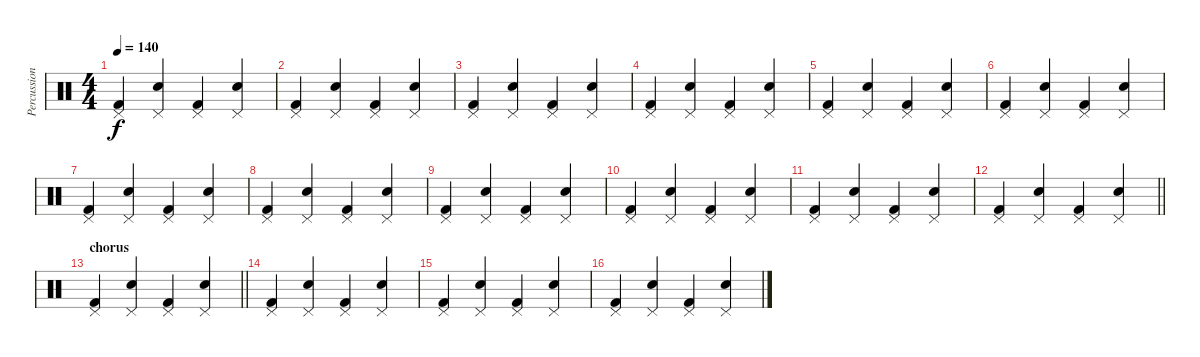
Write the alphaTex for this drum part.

\track ("Percussion" "Percussion") {instrument percussion}
\staff {score}
\articulation defaults
\ts (4 4)
\tempo 140
\clef neutral
\ks c
("Kick (hit) 2" "Pedal Hi-Hat (hit)").4{dy f} ("Snare (hit) 2" "Pedal Hi-Hat (hit)").4 ("Kick (hit) 2" "Pedal Hi-Hat (hit)").4 ("Snare (hit) 2" "Pedal Hi-Hat (hit)").4 |
("Kick (hit) 2" "Pedal Hi-Hat (hit)").4 ("Snare (hit) 2" "Pedal Hi-Hat (hit)").4 ("Kick (hit) 2" "Pedal Hi-Hat (hit)").4 ("Snare (hit) 2" "Pedal Hi-Hat (hit)").4 |
("Kick (hit) 2" "Pedal Hi-Hat (hit)").4 ("Snare (hit) 2" "Pedal Hi-Hat (hit)").4 ("Kick (hit) 2" "Pedal Hi-Hat (hit)").4 ("Snare (hit) 2" "Pedal Hi-Hat (hit)").4 |
("Kick (hit) 2" "Pedal Hi-Hat (hit)").4 ("Snare (hit) 2" "Pedal Hi-Hat (hit)").4 ("Kick (hit) 2" "Pedal Hi-Hat (hit)").4 ("Snare (hit) 2" "Pedal Hi-Hat (hit)").4 |
("Kick (hit) 2" "Pedal Hi-Hat (hit)").4 ("Snare (hit) 2" "Pedal Hi-Hat (hit)").4 ("Kick (hit) 2" "Pedal Hi-Hat (hit)").4 ("Snare (hit) 2" "Pedal Hi-Hat (hit)").4 |
("Kick (hit) 2" "Pedal Hi-Hat (hit)").4 ("Snare (hit) 2" "Pedal Hi-Hat (hit)").4 ("Kick (hit) 2" "Pedal Hi-Hat (hit)").4 ("Snare (hit) 2" "Pedal Hi-Hat (hit)").4 |
("Kick (hit) 2" "Pedal Hi-Hat (hit)").4 ("Snare (hit) 2" "Pedal Hi-Hat (hit)").4 ("Kick (hit) 2" "Pedal Hi-Hat (hit)").4 ("Snare (hit) 2" "Pedal Hi-Hat (hit)").4 |
("Kick (hit) 2" "Pedal Hi-Hat (hit)").4 ("Snare (hit) 2" "Pedal Hi-Hat (hit)").4 ("Kick (hit) 2" "Pedal Hi-Hat (hit)").4 ("Snare (hit) 2" "Pedal Hi-Hat (hit)").4 |
("Kick (hit) 2" "Pedal Hi-Hat (hit)").4 ("Snare (hit) 2" "Pedal Hi-Hat (hit)").4 ("Kick (hit) 2" "Pedal Hi-Hat (hit)").4 ("Snare (hit) 2" "Pedal Hi-Hat (hit)").4 |
("Kick (hit) 2" "Pedal Hi-Hat (hit)").4 ("Snare (hit) 2" "Pedal Hi-Hat (hit)").4 ("Kick (hit) 2" "Pedal Hi-Hat (hit)").4 ("Snare (hit) 2" "Pedal Hi-Hat (hit)").4 |
("Kick (hit) 2" "Pedal Hi-Hat (hit)").4 ("Snare (hit) 2" "Pedal Hi-Hat (hit)").4 ("Kick (hit) 2" "Pedal Hi-Hat (hit)").4 ("Snare (hit) 2" "Pedal Hi-Hat (hit)").4 |
\barLineRight lightlight
("Kick (hit) 2" "Pedal Hi-Hat (hit)").4 ("Snare (hit) 2" "Pedal Hi-Hat (hit)").4 ("Kick (hit) 2" "Pedal Hi-Hat (hit)").4 ("Snare (hit) 2" "Pedal Hi-Hat (hit)").4 |
\section ("" "chorus")
\barLineRight lightlight
("Kick (hit) 2" "Pedal Hi-Hat (hit)").4 ("Snare (hit) 2" "Pedal Hi-Hat (hit)").4 ("Kick (hit) 2" "Pedal Hi-Hat (hit)").4 ("Snare (hit) 2" "Pedal Hi-Hat (hit)").4 |
("Kick (hit) 2" "Pedal Hi-Hat (hit)").4 ("Snare (hit) 2" "Pedal Hi-Hat (hit)").4 ("Kick (hit) 2" "Pedal Hi-Hat (hit)").4 ("Snare (hit) 2" "Pedal Hi-Hat (hit)").4 |
("Kick (hit) 2" "Pedal Hi-Hat (hit)").4 ("Snare (hit) 2" "Pedal Hi-Hat (hit)").4 ("Kick (hit) 2" "Pedal Hi-Hat (hit)").4 ("Snare (hit) 2" "Pedal Hi-Hat (hit)").4 |
("Kick (hit) 2" "Pedal Hi-Hat (hit)").4 ("Snare (hit) 2" "Pedal Hi-Hat (hit)").4 ("Kick (hit) 2" "Pedal Hi-Hat (hit)").4 ("Snare (hit) 2" "Pedal Hi-Hat (hit)").4
